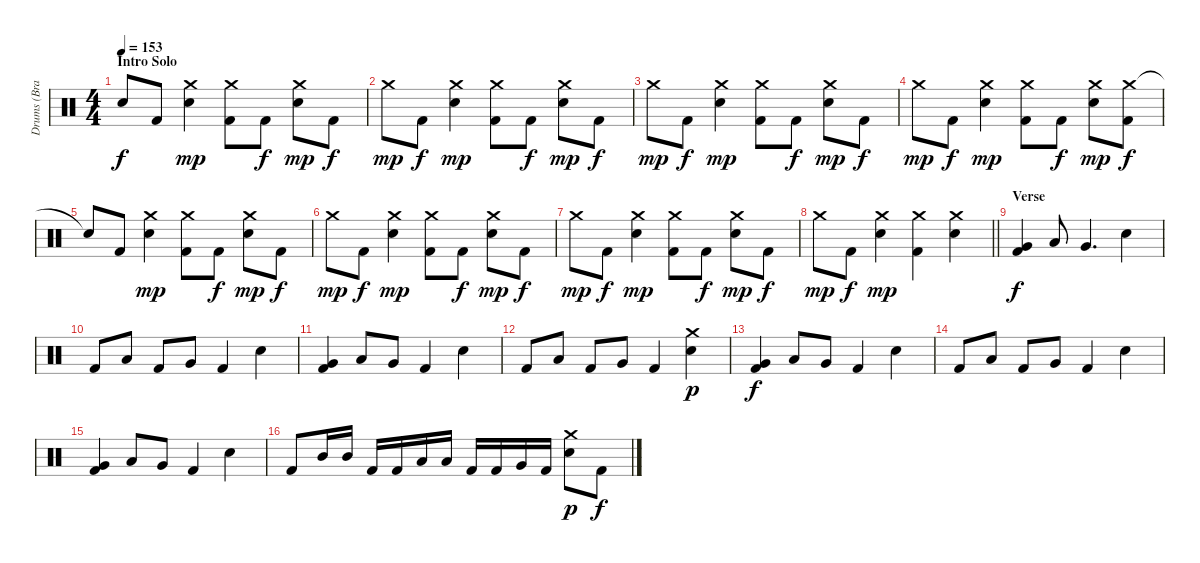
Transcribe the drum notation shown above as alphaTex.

\track ("Drums (Brandon Saller)" "Drums (Bra") {instrument percussion}
\staff {score}
\articulation defaults
\ts (4 4)
\section ("" "Intro Solo")
\tempo 153
\clef neutral
\ks c "Snare (hit)"{t}.8{dy f} "Kick (hit) 2".8
("Crash medium (hit)" "Electric Snare (hit)").4{dy mp} ("Crash medium (hit)" "Kick (hit) 2").8 "Kick (hit) 2".8{dy f} ("Crash medium (hit)" "Electric Snare (hit)").8{dy mp} "Kick (hit) 2".8{dy f} |
"Crash medium (hit)".8{dy mp} "Kick (hit) 2".8{dy f} ("Crash medium (hit)" "Electric Snare (hit)").4{dy mp} ("Crash medium (hit)" "Kick (hit) 2").8 "Kick (hit) 2".8{dy f} ("Crash medium (hit)" "Electric Snare (hit)").8{dy mp} "Kick (hit) 2".8{dy f} |
"Crash medium (hit)".8{dy mp} "Kick (hit) 2".8{dy f} ("Crash medium (hit)" "Electric Snare (hit)").4{dy mp} ("Crash medium (hit)" "Kick (hit) 2").8 "Kick (hit) 2".8{dy f} ("Crash medium (hit)" "Electric Snare (hit)").8{dy mp} "Kick (hit) 2".8{dy f} |
"Crash medium (hit)".8{dy mp} "Kick (hit) 2".8{dy f} ("Crash medium (hit)" "Electric Snare (hit)").4{dy mp} ("Crash medium (hit)" "Kick (hit) 2").8 "Kick (hit) 2".8{dy f} ("Crash medium (hit)" "Electric Snare (hit)").8{dy mp} ("Crash medium (hit)" "Kick (hit) 2").8{dy f} |
"Snare (hit)"{t}.8 "Kick (hit) 2".8 ("Crash medium (hit)" "Electric Snare (hit)").4{dy mp} ("Crash medium (hit)" "Kick (hit) 2").8 "Kick (hit) 2".8{dy f} ("Crash medium (hit)" "Electric Snare (hit)").8{dy mp} "Kick (hit) 2".8{dy f} |
"Crash medium (hit)".8{dy mp} "Kick (hit) 2".8{dy f} ("Crash medium (hit)" "Electric Snare (hit)").4{dy mp} ("Crash medium (hit)" "Kick (hit) 2").8 "Kick (hit) 2".8{dy f} ("Crash medium (hit)" "Electric Snare (hit)").8{dy mp} "Kick (hit) 2".8{dy f} |
"Crash medium (hit)".8{dy mp} "Kick (hit) 2".8{dy f} ("Crash medium (hit)" "Electric Snare (hit)").4{dy mp} ("Crash medium (hit)" "Kick (hit) 2").8 "Kick (hit) 2".8{dy f} ("Crash medium (hit)" "Electric Snare (hit)").8{dy mp} "Kick (hit) 2".8{dy f} |
\barLineRight lightlight "Crash medium (hit)".8{dy mp} "Kick (hit) 2".8{dy f}
("Crash medium (hit)" "Electric Snare (hit)").4{dy mp} ("Crash medium (hit)" "Kick (hit) 2").4 ("Crash medium (hit)" "Electric Snare (hit)").4 |
\section ("" "Verse")
("Very Low Tom (hit)" "Kick (hit) 2").4{dy f} "Low Tom (hit)".8 "Very Low Tom (hit)".4{d} "Electric Snare (hit)".4 |
"Kick (hit) 2".8 "Low Tom (hit)".8 "Kick (hit) 2".8 "Very Low Tom (hit)".8 "Kick (hit) 2".4 "Electric Snare (hit)".4 |
("Very Low Tom (hit)" "Kick (hit) 2").4 "Low Tom (hit)".8 "Very Low Tom (hit)".8 "Kick (hit) 2".4 "Electric Snare (hit)".4 |
"Kick (hit) 2".8 "Low Tom (hit)".8 "Kick (hit) 2".8 "Very Low Tom (hit)".8 "Kick (hit) 2".4 ("Crash medium (hit)" "Electric Snare (hit)").4{dy p} |
("Very Low Tom (hit)" "Kick (hit) 2").4{dy f} "Low Tom (hit)".8 "Very Low Tom (hit)".8 "Kick (hit) 2".4 "Electric Snare (hit)".4 |
"Kick (hit) 2".8 "Low Tom (hit)".8 "Kick (hit) 2".8 "Very Low Tom (hit)".8 "Kick (hit) 2".4 "Electric Snare (hit)".4 |
("Very Low Tom (hit)" "Kick (hit) 2").4 "Low Tom (hit)".8 "Very Low Tom (hit)".8 "Kick (hit) 2".4 "Electric Snare (hit)".4 |
"Kick (hit) 2".8 "Mid Tom (hit)".16 "Mid Tom (hit)".16 "Kick (hit) 2".16 "Kick (hit) 2".16 "Low Tom (hit)".16 "Low Tom (hit)".16 "Kick (hit) 2".16 "Kick (hit) 2".16 "Very Low Tom (hit)".16 "Kick (hit) 2".16 ("Crash medium (hit)" "Electric Snare (hit)").8{dy p} "Kick (hit) 2".8{dy f}
